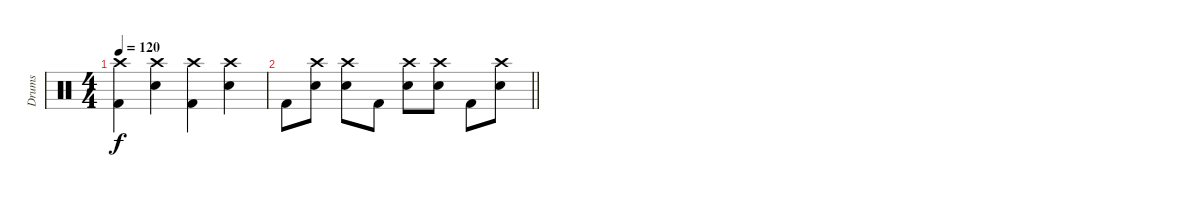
\track ("Drums" "Drums") {instrument percussion}
\staff {score}
\articulation defaults
\ts (4 4)
\tempo 120
\clef neutral
\ks c
("Crash high (hit)" "Kick (hit) 2").4{dy f} ("Crash high (hit)" "Electric Snare (hit)").4 ("Crash high (hit)" "Kick (hit) 2").4 ("Crash high (hit)" "Electric Snare (hit)").4 |
\barLineRight lightlight "Kick (hit) 2".8
("Crash high (hit)" "Electric Snare (hit)").8 ("Crash high (hit)" "Electric Snare (hit)").8 "Kick (hit) 2".8 ("Crash high (hit)" "Electric Snare (hit)").8 ("Crash high (hit)" "Electric Snare (hit)").8 "Kick (hit) 2".8 ("Crash high (hit)" "Electric Snare (hit)").8
